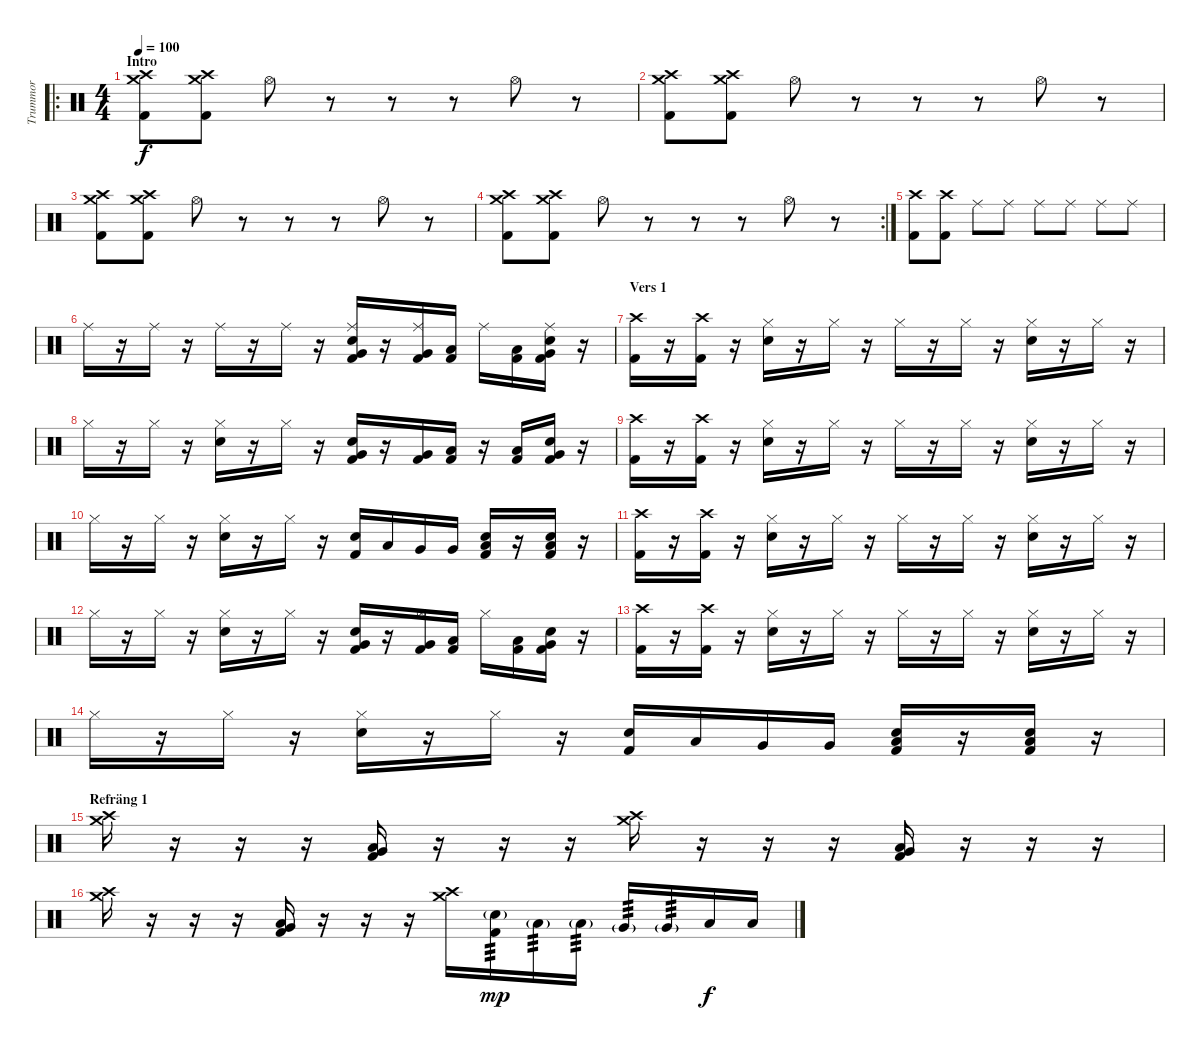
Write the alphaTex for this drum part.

\track ("Trummor" "Trummor") {instrument percussion}
\staff {score}
\articulation defaults
\ro
\ts (4 4)
\section ("" "Intro")
\tempo 100
\clef neutral
\ks c
("Crash medium (hit)" "Crash high (hit)" "Kick (hit) 2").8{dy f} ("Crash medium (hit)" "Crash high (hit)" "Kick (hit) 2").8 "Hi-Hat (open)".8 r.8 r.8 r.8 "Hi-Hat (open)".8 r.8 |
("Crash medium (hit)" "Crash high (hit)" "Kick (hit) 2").8 ("Crash medium (hit)" "Crash high (hit)" "Kick (hit) 2").8 "Hi-Hat (open)".8 r.8 r.8 r.8 "Hi-Hat (open)".8 r.8 |
("Crash medium (hit)" "Crash high (hit)" "Kick (hit) 2").8 ("Crash medium (hit)" "Crash high (hit)" "Kick (hit) 2").8 "Hi-Hat (open)".8 r.8 r.8 r.8 "Hi-Hat (open)".8 r.8 |
\rc 2
("Crash medium (hit)" "Crash high (hit)" "Kick (hit) 2").8 ("Crash medium (hit)" "Crash high (hit)" "Kick (hit) 2").8 "Hi-Hat (open)".8 r.8 r.8 r.8 "Hi-Hat (open)".8 r.8 |
\section ("" "")
("Crash high (hit)" "Kick (hit) 2").8 ("Crash high (hit)" "Kick (hit) 2").8 "Ride (middle)".8 "Ride (middle)".8 "Ride (middle)".8 "Ride (middle)".8 "Ride (middle)".8 "Ride (middle)".8 |
"Ride (middle)".16 r.16 "Ride (middle)".16 r.16 "Ride (middle)".16 r.16 "Ride (middle)".16 r.16 ("Ride (middle)" "Snare (hit) 2" "Very Low Tom (hit)" "Kick (hit) 2").16 r.16 ("Ride (middle)" "Very Low Tom (hit)" "Kick (hit) 2").16 ("Low Floor Tom (hit)" "Kick (hit) 2").16 "Ride (middle)".16 ("Low Floor Tom (hit)" "Kick (hit) 2").16 ("Ride (middle)" "Snare (hit) 2" "Very Low Tom (hit)" "Kick (hit) 2").16 r.16 |
\section ("" "Vers 1")
("Crash high (hit)" "Kick (hit) 2").16 r.16 ("Crash high (hit)" "Kick (hit) 2").16 r.16 ("Hi-Hat (closed)" "Snare (hit) 2").16 r.16 "Hi-Hat (closed)".16 r.16 "Hi-Hat (closed)".16 r.16 "Hi-Hat (closed)".16 r.16 ("Hi-Hat (closed)" "Snare (hit) 2").16 r.16 "Hi-Hat (closed)".16 r.16 |
"Hi-Hat (closed)".16 r.16 "Hi-Hat (closed)".16 r.16 ("Hi-Hat (closed)" "Snare (hit) 2").16 r.16 "Hi-Hat (closed)".16 r.16 ("Snare (hit) 2" "Very Low Tom (hit)" "Kick (hit) 2").16 r.16 ("Very Low Tom (hit)" "Kick (hit) 2").16 ("Low Floor Tom (hit)" "Kick (hit) 2").16 r.16 ("Low Floor Tom (hit)" "Kick (hit) 2").16 ("Snare (hit) 2" "Very Low Tom (hit)" "Kick (hit) 2").16 r.16 |
("Crash high (hit)" "Kick (hit) 2").16 r.16 ("Crash high (hit)" "Kick (hit) 2").16 r.16 ("Hi-Hat (closed)" "Snare (hit) 2").16 r.16 "Hi-Hat (closed)".16 r.16 "Hi-Hat (closed)".16 r.16 "Hi-Hat (closed)".16 r.16 ("Hi-Hat (closed)" "Snare (hit) 2").16 r.16 "Hi-Hat (closed)".16 r.16 |
"Hi-Hat (closed)".16 r.16 "Hi-Hat (closed)".16 r.16 ("Hi-Hat (closed)" "Snare (hit) 2").16 r.16 "Hi-Hat (closed)".16 r.16 ("Snare (hit) 2" "Kick (hit) 2").16 "Low Tom (hit)".16 "Very Low Tom (hit)".16 "Very Low Tom (hit)".16 ("Snare (hit) 2" "Low Floor Tom (hit)" "Kick (hit) 2").16 r.16 ("Snare (hit) 2" "Low Floor Tom (hit)" "Kick (hit) 2").16 r.16 |
("Crash high (hit)" "Kick (hit) 2").16 r.16 ("Crash high (hit)" "Kick (hit) 2").16 r.16 ("Hi-Hat (closed)" "Snare (hit) 2").16 r.16 "Hi-Hat (closed)".16 r.16 "Hi-Hat (closed)".16 r.16 "Hi-Hat (closed)".16 r.16 ("Hi-Hat (closed)" "Snare (hit) 2").16 r.16 "Hi-Hat (closed)".16 r.16 |
"Hi-Hat (closed)".16 r.16 "Hi-Hat (closed)".16 r.16 ("Hi-Hat (closed)" "Snare (hit) 2").16 r.16 "Hi-Hat (closed)".16 r.16 ("Snare (hit) 2" "Very Low Tom (hit)" "Kick (hit) 2").16 r.16 ("Hi-Hat (open)" "Very Low Tom (hit)" "Kick (hit) 2").16 ("Low Floor Tom (hit)" "Kick (hit) 2").16 "Hi-Hat (closed)".16 ("Low Floor Tom (hit)" "Kick (hit) 2").16 ("Snare (hit) 2" "Very Low Tom (hit)" "Kick (hit) 2").16 r.16 |
("Crash high (hit)" "Kick (hit) 2").16 r.16 ("Crash high (hit)" "Kick (hit) 2").16 r.16 ("Hi-Hat (closed)" "Snare (hit) 2").16 r.16 "Hi-Hat (closed)".16 r.16 "Hi-Hat (closed)".16 r.16 "Hi-Hat (closed)".16 r.16 ("Hi-Hat (closed)" "Snare (hit) 2").16 r.16 "Hi-Hat (closed)".16 r.16 |
"Hi-Hat (closed)".16 r.16 "Hi-Hat (closed)".16 r.16 ("Hi-Hat (closed)" "Snare (hit) 2").16 r.16 "Hi-Hat (closed)".16 r.16 ("Snare (hit) 2" "Kick (hit) 2").16 "Low Tom (hit)".16 "Very Low Tom (hit)".16 "Very Low Tom (hit)".16 ("Snare (hit) 2" "Low Floor Tom (hit)" "Kick (hit) 2").16 r.16 ("Snare (hit) 2" "Low Floor Tom (hit)" "Kick (hit) 2").16 r.16 |
\section ("" "Refräng 1")
("Crash medium (hit)" "Crash high (hit)").16 r.16 r.16 r.16 ("Very Low Tom (hit)" "Low Floor Tom (hit)" "Kick (hit) 2").16 r.16 r.16 r.16 ("Crash medium (hit)" "Crash high (hit)").16 r.16 r.16 r.16 ("Very Low Tom (hit)" "Low Floor Tom (hit)" "Kick (hit) 2").16 r.16 r.16 r.16 |
("Crash medium (hit)" "Crash high (hit)").16 r.16 r.16 r.16 ("Very Low Tom (hit)" "Low Floor Tom (hit)" "Kick (hit) 2").16 r.16 r.16 r.16 ("Crash medium (hit)" "Crash high (hit)").16 ("Snare (hit) 2"{g} "Kick (hit) 2").16{tp 3 dy mp} "Low Tom (hit)"{g}.16{tp 3} "Low Tom (hit)"{g}.16{tp 3} "Very Low Tom (hit)"{g}.16{tp 3} "Very Low Tom (hit)"{g}.16{tp 3} "Low Floor Tom (hit)".16{dy f} "Low Floor Tom (hit)".16
